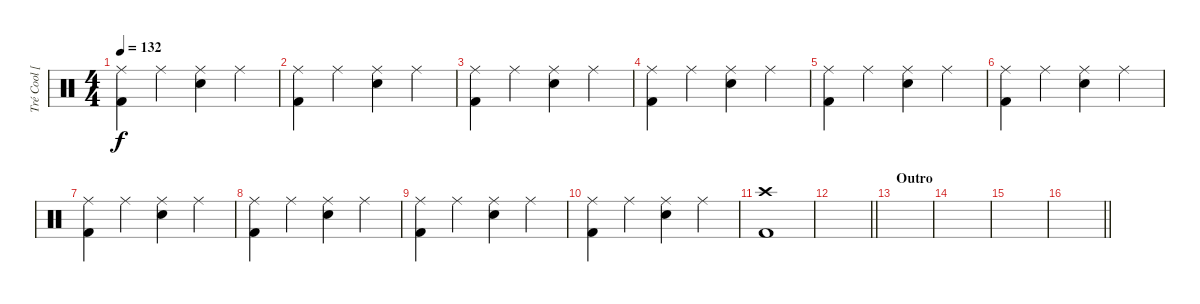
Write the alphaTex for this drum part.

\track ("Tré Cool [Drums]" "Tré Cool [") {instrument percussion}
\staff {score}
\articulation defaults
\ts (4 4)
\tempo 132
\clef neutral
\ks c
("Ride (middle)" "Kick (hit) 2").4{dy f} "Ride (middle)".4 ("Ride (middle)" "Electric Snare (hit)").4 "Ride (middle)".4 |
("Ride (middle)" "Kick (hit) 2").4 "Ride (middle)".4 ("Ride (middle)" "Electric Snare (hit)").4 "Ride (middle)".4 |
("Ride (middle)" "Kick (hit) 2").4 "Ride (middle)".4 ("Ride (middle)" "Electric Snare (hit)").4 "Ride (middle)".4 |
("Ride (middle)" "Kick (hit) 2").4 "Ride (middle)".4 ("Ride (middle)" "Electric Snare (hit)").4 "Ride (middle)".4 |
("Ride (middle)" "Kick (hit) 2").4 "Ride (middle)".4 ("Ride (middle)" "Electric Snare (hit)").4 "Ride (middle)".4 |
("Ride (middle)" "Kick (hit) 2").4 "Ride (middle)".4 ("Ride (middle)" "Electric Snare (hit)").4 "Ride (middle)".4 |
("Ride (middle)" "Kick (hit) 2").4 "Ride (middle)".4 ("Ride (middle)" "Electric Snare (hit)").4 "Ride (middle)".4 |
("Ride (middle)" "Kick (hit) 2").4 "Ride (middle)".4 ("Ride (middle)" "Electric Snare (hit)").4 "Ride (middle)".4 |
("Ride (middle)" "Kick (hit) 2").4 "Ride (middle)".4 ("Ride (middle)" "Electric Snare (hit)").4 "Ride (middle)".4 |
("Ride (middle)" "Kick (hit) 2").4 "Ride (middle)".4 ("Ride (middle)" "Electric Snare (hit)").4 "Ride (middle)".4 |
("Crash high (hit)" "Kick (hit) 2").1 |
\barLineRight lightlight
|
\section ("" "Outro")
|
|
|
\barLineRight lightlight
